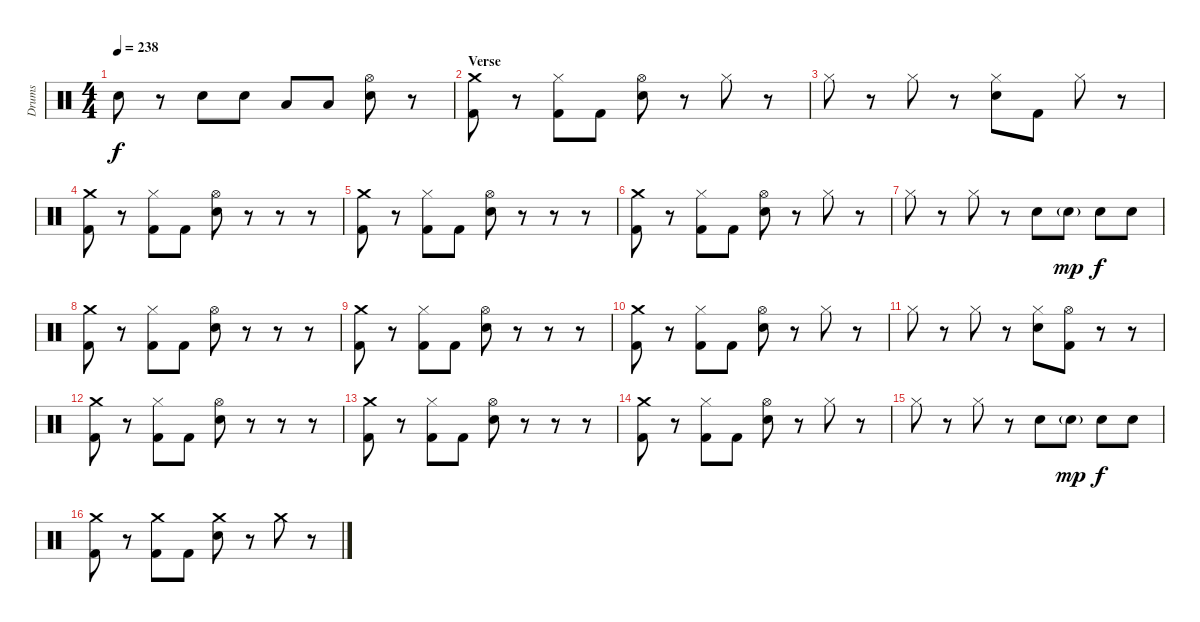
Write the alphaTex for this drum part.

\track ("Drums" "Drums") {instrument percussion}
\staff {score}
\articulation defaults
\ts (4 4)
\tempo 238
\clef neutral
\ks c "Electric Snare (hit)".8{dy f}
r.8 "Electric Snare (hit)".8 "Electric Snare (hit)".8 "Low Tom (hit)".8 "Low Tom (hit)".8 ("Hi-Hat (open)" "Electric Snare (hit)").8 r.8 |
\section ("" "Verse")
("Crash medium (hit)" "Kick (hit) 2").8 r.8 ("Hi-Hat (closed)" "Kick (hit) 2").8 "Kick (hit) 2".8 ("Hi-Hat (open)" "Electric Snare (hit)").8 r.8 "Hi-Hat (closed)".8 r.8 |
"Hi-Hat (closed)".8 r.8 "Hi-Hat (closed)".8 r.8 ("Hi-Hat (closed)" "Electric Snare (hit)").8 "Kick (hit) 2".8 "Hi-Hat (closed)".8 r.8 |
("Crash medium (hit)" "Kick (hit) 2").8 r.8 ("Hi-Hat (closed)" "Kick (hit) 2").8 "Kick (hit) 2".8 ("Hi-Hat (open)" "Electric Snare (hit)").8 r.8 r.8 r.8 |
("Crash medium (hit)" "Kick (hit) 2").8 r.8 ("Hi-Hat (closed)" "Kick (hit) 2").8 "Kick (hit) 2".8 ("Hi-Hat (open)" "Electric Snare (hit)").8 r.8 r.8 r.8 |
("Crash medium (hit)" "Kick (hit) 2").8 r.8 ("Hi-Hat (closed)" "Kick (hit) 2").8 "Kick (hit) 2".8 ("Hi-Hat (open)" "Electric Snare (hit)").8 r.8 "Hi-Hat (closed)".8 r.8 |
"Hi-Hat (closed)".8 r.8 "Hi-Hat (closed)".8 r.8 "Electric Snare (hit)".8 "Electric Snare (hit)"{g}.8{dy mp} "Electric Snare (hit)".8{dy f} "Electric Snare (hit)".8 |
("Crash medium (hit)" "Kick (hit) 2").8 r.8 ("Hi-Hat (closed)" "Kick (hit) 2").8 "Kick (hit) 2".8 ("Hi-Hat (open)" "Electric Snare (hit)").8 r.8 r.8 r.8 |
("Crash medium (hit)" "Kick (hit) 2").8 r.8 ("Hi-Hat (closed)" "Kick (hit) 2").8 "Kick (hit) 2".8 ("Hi-Hat (open)" "Electric Snare (hit)").8 r.8 r.8 r.8 |
("Crash medium (hit)" "Kick (hit) 2").8 r.8 ("Hi-Hat (closed)" "Kick (hit) 2").8 "Kick (hit) 2".8 ("Hi-Hat (open)" "Electric Snare (hit)").8 r.8 "Hi-Hat (closed)".8 r.8 |
"Hi-Hat (closed)".8 r.8 "Hi-Hat (closed)".8 r.8 ("Hi-Hat (closed)" "Electric Snare (hit)").8 ("Hi-Hat (open)" "Kick (hit) 2").8 r.8 r.8 |
("Crash medium (hit)" "Kick (hit) 2").8 r.8 ("Hi-Hat (closed)" "Kick (hit) 2").8 "Kick (hit) 2".8 ("Hi-Hat (open)" "Electric Snare (hit)").8 r.8 r.8 r.8 |
("Crash medium (hit)" "Kick (hit) 2").8 r.8 ("Hi-Hat (closed)" "Kick (hit) 2").8 "Kick (hit) 2".8 ("Hi-Hat (open)" "Electric Snare (hit)").8 r.8 r.8 r.8 |
("Crash medium (hit)" "Kick (hit) 2").8 r.8 ("Hi-Hat (closed)" "Kick (hit) 2").8 "Kick (hit) 2".8 ("Hi-Hat (open)" "Electric Snare (hit)").8 r.8 "Hi-Hat (closed)".8 r.8 |
"Hi-Hat (closed)".8 r.8 "Hi-Hat (closed)".8 r.8 "Electric Snare (hit)".8 "Electric Snare (hit)"{g}.8{dy mp} "Electric Snare (hit)".8{dy f} "Electric Snare (hit)".8 |
("Crash medium (hit)" "Kick (hit) 2").8 r.8 ("Crash medium (hit)" "Kick (hit) 2").8 "Kick (hit) 2".8 ("Crash medium (hit)" "Electric Snare (hit)").8 r.8 "Crash medium (hit)".8 r.8
